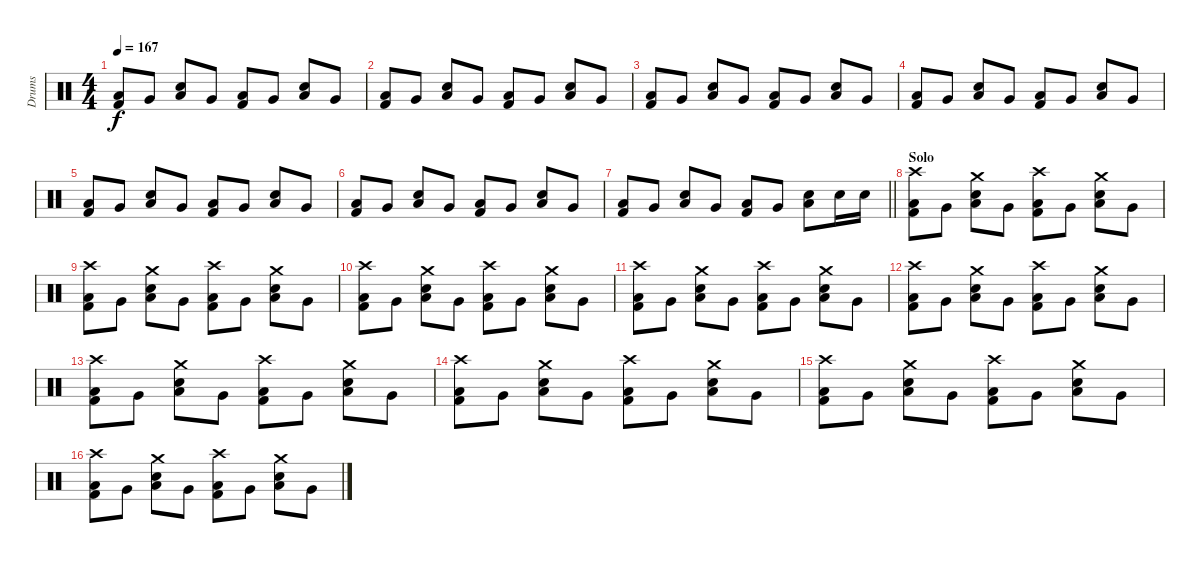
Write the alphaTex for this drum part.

\track ("Drums" "Drums") {instrument percussion}
\staff {score}
\articulation defaults
\ts (4 4)
\tempo 167
\clef neutral
\ks c
("Low Floor Tom (hit)" "Kick (hit) 2").8{dy f} "Very Low Tom (hit)".8 ("Low Floor Tom (hit)" "Snare (hit) 2").8 "Very Low Tom (hit)".8 ("Low Floor Tom (hit)" "Kick (hit) 2").8 "Very Low Tom (hit)".8 ("Low Floor Tom (hit)" "Snare (hit) 2").8 "Very Low Tom (hit)".8 |
("Low Floor Tom (hit)" "Kick (hit) 2").8 "Very Low Tom (hit)".8 ("Low Floor Tom (hit)" "Snare (hit) 2").8 "Very Low Tom (hit)".8 ("Low Floor Tom (hit)" "Kick (hit) 2").8 "Very Low Tom (hit)".8 ("Low Floor Tom (hit)" "Snare (hit) 2").8 "Very Low Tom (hit)".8 |
("Low Floor Tom (hit)" "Kick (hit) 2").8 "Very Low Tom (hit)".8 ("Low Floor Tom (hit)" "Snare (hit) 2").8 "Very Low Tom (hit)".8 ("Low Floor Tom (hit)" "Kick (hit) 2").8 "Very Low Tom (hit)".8 ("Low Floor Tom (hit)" "Snare (hit) 2").8 "Very Low Tom (hit)".8 |
("Low Floor Tom (hit)" "Kick (hit) 2").8 "Very Low Tom (hit)".8 ("Low Floor Tom (hit)" "Snare (hit) 2").8 "Very Low Tom (hit)".8 ("Low Floor Tom (hit)" "Kick (hit) 2").8 "Very Low Tom (hit)".8 ("Low Floor Tom (hit)" "Snare (hit) 2").8 "Very Low Tom (hit)".8 |
("Low Floor Tom (hit)" "Kick (hit) 2").8 "Very Low Tom (hit)".8 ("Low Floor Tom (hit)" "Snare (hit) 2").8 "Very Low Tom (hit)".8 ("Low Floor Tom (hit)" "Kick (hit) 2").8 "Very Low Tom (hit)".8 ("Low Floor Tom (hit)" "Snare (hit) 2").8 "Very Low Tom (hit)".8 |
("Low Floor Tom (hit)" "Kick (hit) 2").8 "Very Low Tom (hit)".8 ("Low Floor Tom (hit)" "Snare (hit) 2").8 "Very Low Tom (hit)".8 ("Low Floor Tom (hit)" "Kick (hit) 2").8 "Very Low Tom (hit)".8 ("Low Floor Tom (hit)" "Snare (hit) 2").8 "Very Low Tom (hit)".8 |
\barLineRight lightlight
("Low Floor Tom (hit)" "Kick (hit) 2").8 "Very Low Tom (hit)".8 ("Low Floor Tom (hit)" "Snare (hit) 2").8 "Very Low Tom (hit)".8 ("Low Floor Tom (hit)" "Kick (hit) 2").8 "Very Low Tom (hit)".8 ("Low Floor Tom (hit)" "Snare (hit) 2").8 "Snare (hit) 2".16 "Snare (hit) 2".16 |
\section ("" "Solo")
("Crash high (hit)" "Low Floor Tom (hit)" "Kick (hit) 2").8 "Very Low Tom (hit)".8 ("Crash medium (hit)" "Low Floor Tom (hit)" "Snare (hit) 2").8 "Very Low Tom (hit)".8 ("Crash high (hit)" "Low Floor Tom (hit)" "Kick (hit) 2").8 "Very Low Tom (hit)".8 ("Crash medium (hit)" "Low Floor Tom (hit)" "Snare (hit) 2").8 "Very Low Tom (hit)".8 |
("Crash high (hit)" "Low Floor Tom (hit)" "Kick (hit) 2").8 "Very Low Tom (hit)".8 ("Crash medium (hit)" "Low Floor Tom (hit)" "Snare (hit) 2").8 "Very Low Tom (hit)".8 ("Crash high (hit)" "Low Floor Tom (hit)" "Kick (hit) 2").8 "Very Low Tom (hit)".8 ("Crash medium (hit)" "Low Floor Tom (hit)" "Snare (hit) 2").8 "Very Low Tom (hit)".8 |
("Crash high (hit)" "Low Floor Tom (hit)" "Kick (hit) 2").8 "Very Low Tom (hit)".8 ("Crash medium (hit)" "Low Floor Tom (hit)" "Snare (hit) 2").8 "Very Low Tom (hit)".8 ("Crash high (hit)" "Low Floor Tom (hit)" "Kick (hit) 2").8 "Very Low Tom (hit)".8 ("Crash medium (hit)" "Low Floor Tom (hit)" "Snare (hit) 2").8 "Very Low Tom (hit)".8 |
("Crash high (hit)" "Low Floor Tom (hit)" "Kick (hit) 2").8 "Very Low Tom (hit)".8 ("Crash medium (hit)" "Low Floor Tom (hit)" "Snare (hit) 2").8 "Very Low Tom (hit)".8 ("Crash high (hit)" "Low Floor Tom (hit)" "Kick (hit) 2").8 "Very Low Tom (hit)".8 ("Crash medium (hit)" "Low Floor Tom (hit)" "Snare (hit) 2").8 "Very Low Tom (hit)".8 |
("Crash high (hit)" "Low Floor Tom (hit)" "Kick (hit) 2").8 "Very Low Tom (hit)".8 ("Crash medium (hit)" "Low Floor Tom (hit)" "Snare (hit) 2").8 "Very Low Tom (hit)".8 ("Crash high (hit)" "Low Floor Tom (hit)" "Kick (hit) 2").8 "Very Low Tom (hit)".8 ("Crash medium (hit)" "Low Floor Tom (hit)" "Snare (hit) 2").8 "Very Low Tom (hit)".8 |
("Crash high (hit)" "Low Floor Tom (hit)" "Kick (hit) 2").8 "Very Low Tom (hit)".8 ("Crash medium (hit)" "Low Floor Tom (hit)" "Snare (hit) 2").8 "Very Low Tom (hit)".8 ("Crash high (hit)" "Low Floor Tom (hit)" "Kick (hit) 2").8 "Very Low Tom (hit)".8 ("Crash medium (hit)" "Low Floor Tom (hit)" "Snare (hit) 2").8 "Very Low Tom (hit)".8 |
("Crash high (hit)" "Low Floor Tom (hit)" "Kick (hit) 2").8 "Very Low Tom (hit)".8 ("Crash medium (hit)" "Low Floor Tom (hit)" "Snare (hit) 2").8 "Very Low Tom (hit)".8 ("Crash high (hit)" "Low Floor Tom (hit)" "Kick (hit) 2").8 "Very Low Tom (hit)".8 ("Crash medium (hit)" "Low Floor Tom (hit)" "Snare (hit) 2").8 "Very Low Tom (hit)".8 |
("Crash high (hit)" "Low Floor Tom (hit)" "Kick (hit) 2").8 "Very Low Tom (hit)".8 ("Crash medium (hit)" "Low Floor Tom (hit)" "Snare (hit) 2").8 "Very Low Tom (hit)".8 ("Crash high (hit)" "Low Floor Tom (hit)" "Kick (hit) 2").8 "Very Low Tom (hit)".8 ("Crash medium (hit)" "Low Floor Tom (hit)" "Snare (hit) 2").8 "Very Low Tom (hit)".8 |
("Crash high (hit)" "Low Floor Tom (hit)" "Kick (hit) 2").8 "Very Low Tom (hit)".8 ("Crash medium (hit)" "Low Floor Tom (hit)" "Snare (hit) 2").8 "Very Low Tom (hit)".8 ("Crash high (hit)" "Low Floor Tom (hit)" "Kick (hit) 2").8 "Very Low Tom (hit)".8 ("Crash medium (hit)" "Low Floor Tom (hit)" "Snare (hit) 2").8 "Very Low Tom (hit)".8
